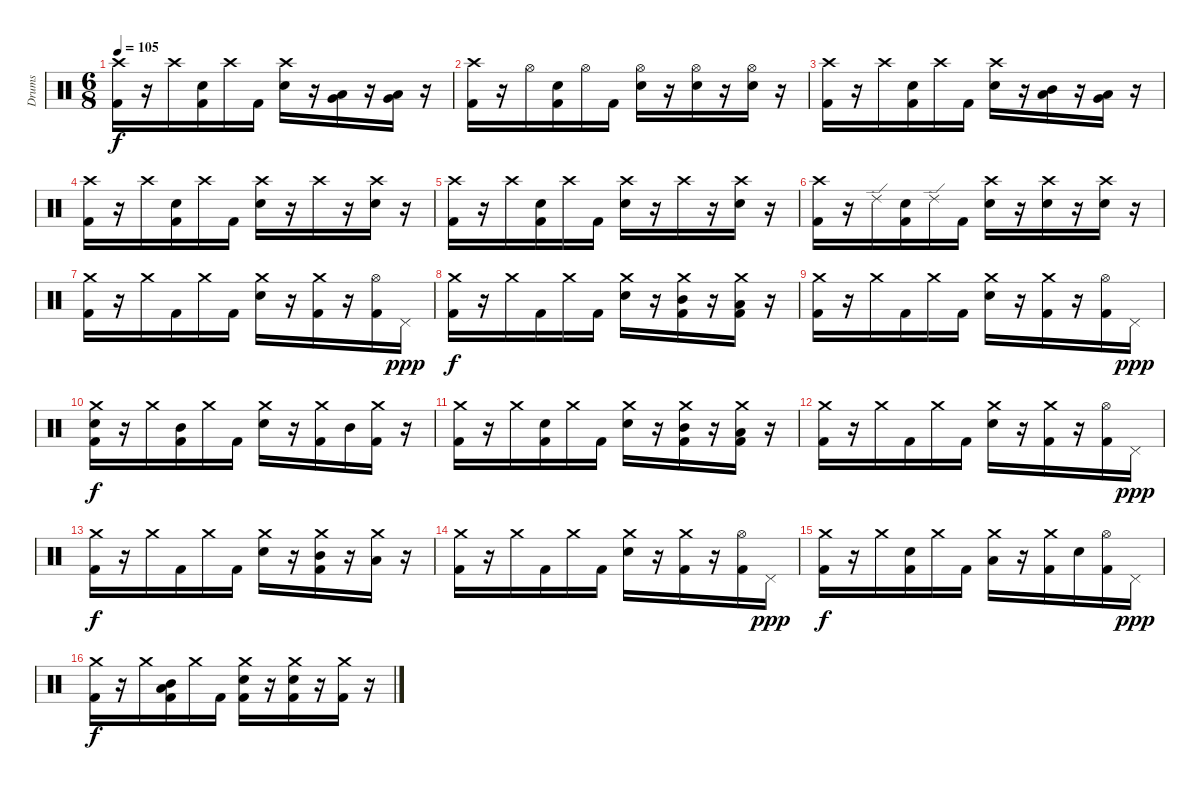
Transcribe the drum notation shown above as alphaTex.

\track ("Drums" "Drums") {instrument percussion}
\staff {score}
\articulation defaults
\ts (6 8)
\tempo 105
\clef neutral
\ks c
("Crash high (hit)" "Kick (hit) 2").16{dy f} r.16 "Crash high (hit)".16 ("Electric Snare (hit)" "Kick (hit) 2").16 "Crash high (hit)".16 "Kick (hit) 2".16 ("Crash high (hit)" "Electric Snare (hit)").16 r.16 ("Low Tom (hit)" "Very Low Tom (hit)").16 r.16 ("Low Tom (hit)" "Very Low Tom (hit)").16 r.16 |
("Crash high (hit)" "Kick (hit) 2").16 r.16 "Hi-Hat (open)".16 ("Electric Snare (hit)" "Kick (hit) 2").16 "Hi-Hat (open)".16 "Kick (hit) 2".16 ("Hi-Hat (open)" "Electric Snare (hit)").16 r.16 ("Hi-Hat (open)" "Electric Snare (hit)").16 r.16 ("Hi-Hat (open)" "Electric Snare (hit)").16 r.16 |
("Crash high (hit)" "Kick (hit) 2").16 r.16 "Crash high (hit)".16 ("Electric Snare (hit)" "Kick (hit) 2").16 "Crash high (hit)".16 "Kick (hit) 2".16 ("Crash high (hit)" "Electric Snare (hit)").16 r.16 ("Mid Tom (hit)" "Low Tom (hit)").16 r.16 ("Very Low Tom (hit)" "Low Tom (hit)").16 r.16 |
("Crash high (hit)" "Kick (hit) 2").16 r.16 "Crash high (hit)".16 ("Electric Snare (hit)" "Kick (hit) 2").16 "Crash high (hit)".16 "Kick (hit) 2".16 ("Crash high (hit)" "Electric Snare (hit)").16 r.16 "Crash high (hit)".16 r.16 ("Crash high (hit)" "Electric Snare (hit)").16 r.16 |
("Crash high (hit)" "Kick (hit) 2").16 r.16 "Crash high (hit)".16 ("Electric Snare (hit)" "Kick (hit) 2").16 "Crash high (hit)".16 "Kick (hit) 2".16 ("Crash high (hit)" "Electric Snare (hit)").16 r.16 "Crash high (hit)".16 r.16 ("Crash high (hit)" "Electric Snare (hit)").16 r.16 |
("Crash high (hit)" "Kick (hit) 2").16 r.16 "Ride (edge) 2".16 ("Electric Snare (hit)" "Kick (hit) 2").16 "Ride (edge) 2".16 "Kick (hit) 2".16 ("Crash high (hit)" "Electric Snare (hit)").16 r.16 ("Crash high (hit)" "Electric Snare (hit)").16 r.16 ("Crash high (hit)" "Electric Snare (hit)").16 r.16 |
("Crash medium (hit)" "Kick (hit) 2").16 r.16 "Crash medium (hit)".16 "Kick (hit) 2".16 "Crash medium (hit)".16 "Kick (hit) 2".16 ("Crash medium (hit)" "Electric Snare (hit)").16 r.16 ("Crash medium (hit)" "Kick (hit) 2").16 r.16 ("Hi-Hat (open)" "Kick (hit) 2").16 "Pedal Hi-Hat (hit)".16{dy ppp} |
("Crash medium (hit)" "Kick (hit) 2").16{dy f} r.16 "Crash medium (hit)".16 "Kick (hit) 2".16 "Crash medium (hit)".16 "Kick (hit) 2".16 ("Crash medium (hit)" "Electric Snare (hit)").16 r.16 ("Crash medium (hit)" "Mid Tom (hit)" "Kick (hit) 2").16 r.16 ("Crash medium (hit)" "Low Tom (hit)" "Kick (hit) 2").16 r.16 |
("Crash medium (hit)" "Kick (hit) 2").16 r.16 "Crash medium (hit)".16 "Kick (hit) 2".16 "Crash medium (hit)".16 "Kick (hit) 2".16 ("Crash medium (hit)" "Electric Snare (hit)").16 r.16 ("Crash medium (hit)" "Kick (hit) 2").16 r.16 ("Hi-Hat (open)" "Kick (hit) 2").16 "Pedal Hi-Hat (hit)".16{dy ppp} |
("Crash medium (hit)" "Electric Snare (hit)" "Kick (hit) 2").16{dy f} r.16 "Crash medium (hit)".16 ("Mid Tom (hit)" "Kick (hit) 2").16 "Crash medium (hit)".16 "Kick (hit) 2".16 ("Crash medium (hit)" "Electric Snare (hit)").16 r.16 ("Crash medium (hit)" "Kick (hit) 2").16 "Mid Tom (hit)".16 ("Crash medium (hit)" "Kick (hit) 2").16 r.16 |
("Crash medium (hit)" "Kick (hit) 2").16 r.16 "Crash medium (hit)".16 ("Electric Snare (hit)" "Kick (hit) 2").16 "Crash medium (hit)".16 "Kick (hit) 2".16 ("Crash medium (hit)" "Electric Snare (hit)").16 r.16 ("Crash medium (hit)" "Mid Tom (hit)" "Kick (hit) 2").16 r.16 ("Crash medium (hit)" "Low Tom (hit)" "Kick (hit) 2").16 r.16 |
("Crash medium (hit)" "Kick (hit) 2").16 r.16 "Crash medium (hit)".16 "Kick (hit) 2".16 "Crash medium (hit)".16 "Kick (hit) 2".16 ("Crash medium (hit)" "Electric Snare (hit)").16 r.16 ("Crash medium (hit)" "Kick (hit) 2").16 r.16 ("Hi-Hat (open)" "Kick (hit) 2").16 "Pedal Hi-Hat (hit)".16{dy ppp} |
("Crash medium (hit)" "Kick (hit) 2").16{dy f} r.16 "Crash medium (hit)".16 "Kick (hit) 2".16 "Crash medium (hit)".16 "Kick (hit) 2".16 ("Crash medium (hit)" "Electric Snare (hit)").16 r.16 ("Crash medium (hit)" "Mid Tom (hit)" "Kick (hit) 2").16 r.16 ("Crash medium (hit)" "Low Tom (hit)").16 r.16 |
("Crash medium (hit)" "Kick (hit) 2").16 r.16 "Crash medium (hit)".16 "Kick (hit) 2".16 "Crash medium (hit)".16 "Kick (hit) 2".16 ("Crash medium (hit)" "Electric Snare (hit)").16 r.16 ("Crash medium (hit)" "Kick (hit) 2").16 r.16 ("Hi-Hat (open)" "Kick (hit) 2").16 "Pedal Hi-Hat (hit)".16{dy ppp} |
("Crash medium (hit)" "Kick (hit) 2").16{dy f} r.16 "Crash medium (hit)".16 ("Electric Snare (hit)" "Kick (hit) 2").16 "Crash medium (hit)".16 "Kick (hit) 2".16 ("Crash medium (hit)" "Low Tom (hit)").16 r.16 ("Crash medium (hit)" "Kick (hit) 2").16 "Electric Snare (hit)".16 ("Hi-Hat (open)" "Kick (hit) 2").16 "Pedal Hi-Hat (hit)".16{dy ppp} |
("Crash medium (hit)" "Kick (hit) 2").16{dy f} r.16 "Crash medium (hit)".16 ("Mid Tom (hit)" "Low Tom (hit)" "Kick (hit) 2").16 "Crash medium (hit)".16 "Kick (hit) 2".16 ("Crash medium (hit)" "Electric Snare (hit)" "Kick (hit) 2").16 r.16 ("Crash medium (hit)" "Electric Snare (hit)" "Kick (hit) 2").16 r.16 ("Crash medium (hit)" "Kick (hit) 2").16 r.16
